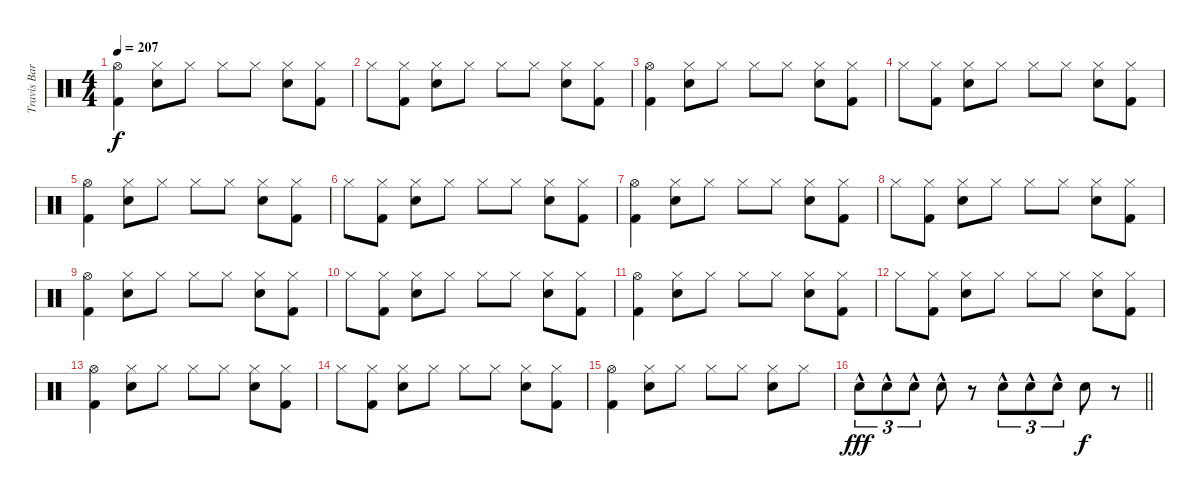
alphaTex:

\track ("Travis Barker" "Travis Bar") {instrument percussion}
\staff {score}
\articulation defaults
\ts (4 4)
\tempo 207
\clef neutral
\ks c
("Hi-Hat (open)" "Kick (hit) 2").4{dy f} ("Hi-Hat (closed)" "Electric Snare (hit)").8 "Hi-Hat (closed)".8 "Hi-Hat (closed)".8 "Hi-Hat (closed)".8 ("Hi-Hat (closed)" "Electric Snare (hit)").8 ("Hi-Hat (closed)" "Kick (hit) 2").8 |
"Hi-Hat (closed)".8 ("Hi-Hat (closed)" "Kick (hit) 2").8 ("Hi-Hat (closed)" "Electric Snare (hit)").8 "Hi-Hat (closed)".8 "Hi-Hat (closed)".8 "Hi-Hat (closed)".8 ("Hi-Hat (closed)" "Electric Snare (hit)").8 ("Hi-Hat (closed)" "Kick (hit) 2").8 |
("Hi-Hat (open)" "Kick (hit) 2").4 ("Hi-Hat (closed)" "Electric Snare (hit)").8 "Hi-Hat (closed)".8 "Hi-Hat (closed)".8 "Hi-Hat (closed)".8 ("Hi-Hat (closed)" "Electric Snare (hit)").8 ("Hi-Hat (closed)" "Kick (hit) 2").8 |
"Hi-Hat (closed)".8 ("Hi-Hat (closed)" "Kick (hit) 2").8 ("Hi-Hat (closed)" "Electric Snare (hit)").8 "Hi-Hat (closed)".8 "Hi-Hat (closed)".8 "Hi-Hat (closed)".8 ("Hi-Hat (closed)" "Electric Snare (hit)").8 ("Hi-Hat (closed)" "Kick (hit) 2").8 |
("Hi-Hat (open)" "Kick (hit) 2").4 ("Hi-Hat (closed)" "Electric Snare (hit)").8 "Hi-Hat (closed)".8 "Hi-Hat (closed)".8 "Hi-Hat (closed)".8 ("Hi-Hat (closed)" "Electric Snare (hit)").8 ("Hi-Hat (closed)" "Kick (hit) 2").8 |
"Hi-Hat (closed)".8 ("Hi-Hat (closed)" "Kick (hit) 2").8 ("Hi-Hat (closed)" "Electric Snare (hit)").8 "Hi-Hat (closed)".8 "Hi-Hat (closed)".8 "Hi-Hat (closed)".8 ("Hi-Hat (closed)" "Electric Snare (hit)").8 ("Hi-Hat (closed)" "Kick (hit) 2").8 |
("Hi-Hat (open)" "Kick (hit) 2").4 ("Hi-Hat (closed)" "Electric Snare (hit)").8 "Hi-Hat (closed)".8 "Hi-Hat (closed)".8 "Hi-Hat (closed)".8 ("Hi-Hat (closed)" "Electric Snare (hit)").8 ("Hi-Hat (closed)" "Kick (hit) 2").8 |
"Hi-Hat (closed)".8 ("Hi-Hat (closed)" "Kick (hit) 2").8 ("Hi-Hat (closed)" "Electric Snare (hit)").8 "Hi-Hat (closed)".8 "Hi-Hat (closed)".8 "Hi-Hat (closed)".8 ("Hi-Hat (closed)" "Electric Snare (hit)").8 ("Hi-Hat (closed)" "Kick (hit) 2").8 |
("Hi-Hat (open)" "Kick (hit) 2").4 ("Hi-Hat (closed)" "Electric Snare (hit)").8 "Hi-Hat (closed)".8 "Hi-Hat (closed)".8 "Hi-Hat (closed)".8 ("Hi-Hat (closed)" "Electric Snare (hit)").8 ("Hi-Hat (closed)" "Kick (hit) 2").8 |
"Hi-Hat (closed)".8 ("Hi-Hat (closed)" "Kick (hit) 2").8 ("Hi-Hat (closed)" "Electric Snare (hit)").8 "Hi-Hat (closed)".8 "Hi-Hat (closed)".8 "Hi-Hat (closed)".8 ("Hi-Hat (closed)" "Electric Snare (hit)").8 ("Hi-Hat (closed)" "Kick (hit) 2").8 |
("Hi-Hat (open)" "Kick (hit) 2").4 ("Hi-Hat (closed)" "Electric Snare (hit)").8 "Hi-Hat (closed)".8 "Hi-Hat (closed)".8 "Hi-Hat (closed)".8 ("Hi-Hat (closed)" "Electric Snare (hit)").8 ("Hi-Hat (closed)" "Kick (hit) 2").8 |
"Hi-Hat (closed)".8 ("Hi-Hat (closed)" "Kick (hit) 2").8 ("Hi-Hat (closed)" "Electric Snare (hit)").8 "Hi-Hat (closed)".8 "Hi-Hat (closed)".8 "Hi-Hat (closed)".8 ("Hi-Hat (closed)" "Electric Snare (hit)").8 ("Hi-Hat (closed)" "Kick (hit) 2").8 |
("Hi-Hat (open)" "Kick (hit) 2").4 ("Hi-Hat (closed)" "Electric Snare (hit)").8 "Hi-Hat (closed)".8 "Hi-Hat (closed)".8 "Hi-Hat (closed)".8 ("Hi-Hat (closed)" "Electric Snare (hit)").8 ("Hi-Hat (closed)" "Kick (hit) 2").8 |
"Hi-Hat (closed)".8 ("Hi-Hat (closed)" "Kick (hit) 2").8 ("Hi-Hat (closed)" "Electric Snare (hit)").8 "Hi-Hat (closed)".8 "Hi-Hat (closed)".8 "Hi-Hat (closed)".8 ("Hi-Hat (closed)" "Electric Snare (hit)").8 ("Hi-Hat (closed)" "Kick (hit) 2").8 |
("Hi-Hat (open)" "Kick (hit) 2").4 ("Hi-Hat (closed)" "Electric Snare (hit)").8 "Hi-Hat (closed)".8 "Hi-Hat (closed)".8 "Hi-Hat (closed)".8 ("Hi-Hat (closed)" "Electric Snare (hit)").8 "Hi-Hat (closed)".8 |
\barLineRight lightlight "Electric Snare (hit)"{hac}.8{tu (3 2) dy fff} "Electric Snare (hit)"{hac}.8{tu (3 2)} "Electric Snare (hit)"{hac}.8{tu (3 2)} "Electric Snare (hit)"{hac}.8
r.8 "Electric Snare (hit)"{hac}.8{tu (3 2)} "Electric Snare (hit)"{hac}.8{tu (3 2)} "Electric Snare (hit)"{hac}.8{tu (3 2)} "Electric Snare (hit)".8{dy f} r.8
